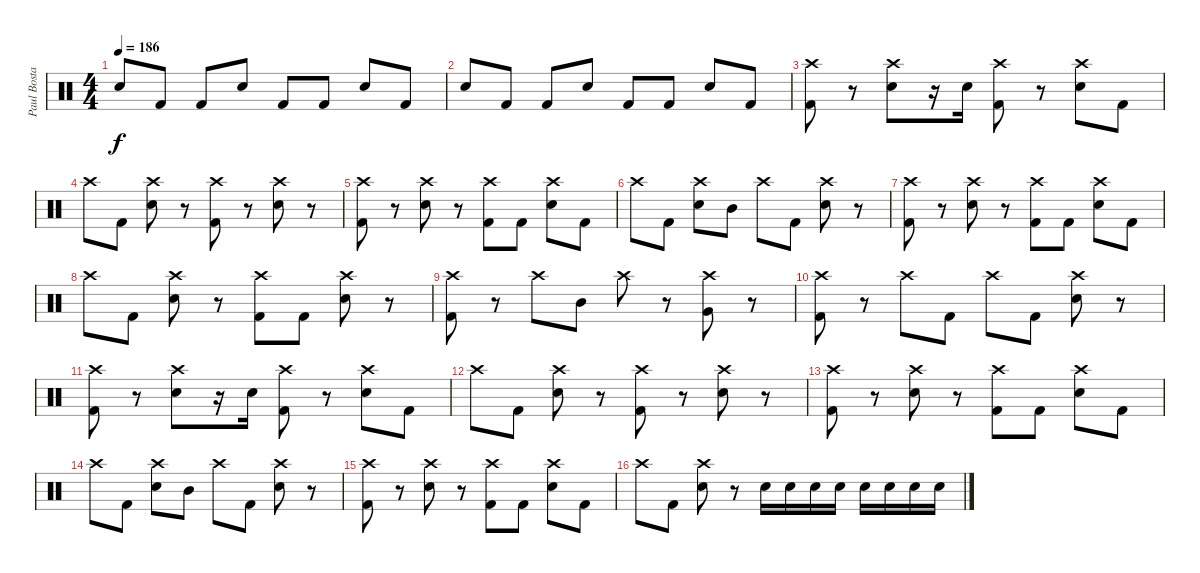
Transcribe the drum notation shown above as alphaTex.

\track ("Paul Bostaph" "Paul Bosta") {instrument percussion}
\staff {score}
\articulation defaults
\ts (4 4)
\tempo 186
\clef neutral
\ks c "Electric Snare (hit)".8{dy f} "Kick (hit) 2".8 "Kick (hit) 2".8 "Electric Snare (hit)".8 "Kick (hit) 2".8 "Kick (hit) 2".8 "Electric Snare (hit)".8 "Kick (hit) 2".8
|
"Electric Snare (hit)".8 "Kick (hit) 2".8 "Kick (hit) 2".8 "Electric Snare (hit)".8 "Kick (hit) 2".8 "Kick (hit) 2".8 "Electric Snare (hit)".8 "Kick (hit) 2".8 |
("Crash high (hit)" "Kick (hit) 2").8 r.8 ("Crash high (hit)" "Electric Snare (hit)").8 r.16 "Electric Snare (hit)".16 ("Crash high (hit)" "Kick (hit) 2").8 r.8 ("Crash high (hit)" "Electric Snare (hit)").8 "Kick (hit) 2".8 |
"Crash high (hit)".8 "Kick (hit) 2".8 ("Crash high (hit)" "Electric Snare (hit)").8 r.8 ("Crash high (hit)" "Kick (hit) 2").8 r.8 ("Crash high (hit)" "Electric Snare (hit)").8 r.8 |
("Crash high (hit)" "Kick (hit) 2").8 r.8 ("Crash high (hit)" "Electric Snare (hit)").8 r.8 ("Crash high (hit)" "Kick (hit) 2").8 "Kick (hit) 2".8 ("Crash high (hit)" "Electric Snare (hit)").8 "Kick (hit) 2".8 |
"Crash high (hit)".8 "Kick (hit) 2".8 ("Crash high (hit)" "Electric Snare (hit)").8 "Mid Tom (hit)".8 "Crash high (hit)".8 "Kick (hit) 2".8 ("Crash high (hit)" "Electric Snare (hit)").8 r.8 |
("Crash high (hit)" "Kick (hit) 2").8 r.8 ("Crash high (hit)" "Electric Snare (hit)").8 r.8 ("Crash high (hit)" "Kick (hit) 2").8 "Kick (hit) 2".8 ("Crash high (hit)" "Electric Snare (hit)").8 "Kick (hit) 2".8 |
"Crash high (hit)".8 "Kick (hit) 2".8 ("Crash high (hit)" "Electric Snare (hit)").8 r.8 ("Crash high (hit)" "Kick (hit) 2").8 "Kick (hit) 2".8 ("Crash high (hit)" "Electric Snare (hit)").8 r.8 |
("Crash high (hit)" "Kick (hit) 2").8 r.8 "Crash high (hit)".8 "Mid Tom (hit)".8 "Crash high (hit)".8 r.8 ("Crash high (hit)" "Very Low Tom (hit)").8 r.8 |
("Crash high (hit)" "Kick (hit) 2").8 r.8 "Crash high (hit)".8 "Kick (hit) 2".8 "Crash high (hit)".8 "Kick (hit) 2".8 ("Crash high (hit)" "Electric Snare (hit)").8 r.8 |
("Crash high (hit)" "Kick (hit) 2").8 r.8 ("Crash high (hit)" "Electric Snare (hit)").8 r.16 "Electric Snare (hit)".16 ("Crash high (hit)" "Kick (hit) 2").8 r.8 ("Crash high (hit)" "Electric Snare (hit)").8 "Kick (hit) 2".8 |
"Crash high (hit)".8 "Kick (hit) 2".8 ("Crash high (hit)" "Electric Snare (hit)").8 r.8 ("Crash high (hit)" "Kick (hit) 2").8 r.8 ("Crash high (hit)" "Electric Snare (hit)").8 r.8 |
("Crash high (hit)" "Kick (hit) 2").8 r.8 ("Crash high (hit)" "Electric Snare (hit)").8 r.8 ("Crash high (hit)" "Kick (hit) 2").8 "Kick (hit) 2".8 ("Crash high (hit)" "Electric Snare (hit)").8 "Kick (hit) 2".8 |
"Crash high (hit)".8 "Kick (hit) 2".8 ("Crash high (hit)" "Electric Snare (hit)").8 "Mid Tom (hit)".8 "Crash high (hit)".8 "Kick (hit) 2".8 ("Crash high (hit)" "Electric Snare (hit)").8 r.8 |
("Crash high (hit)" "Kick (hit) 2").8 r.8 ("Crash high (hit)" "Electric Snare (hit)").8 r.8 ("Crash high (hit)" "Kick (hit) 2").8 "Kick (hit) 2".8 ("Crash high (hit)" "Electric Snare (hit)").8 "Kick (hit) 2".8 |
"Crash high (hit)".8 "Kick (hit) 2".8 ("Crash high (hit)" "Electric Snare (hit)").8 r.8 "Electric Snare (hit)".16 "Electric Snare (hit)".16 "Electric Snare (hit)".16 "Electric Snare (hit)".16 "Electric Snare (hit)".16 "Electric Snare (hit)".16 "Electric Snare (hit)".16 "Electric Snare (hit)".16
